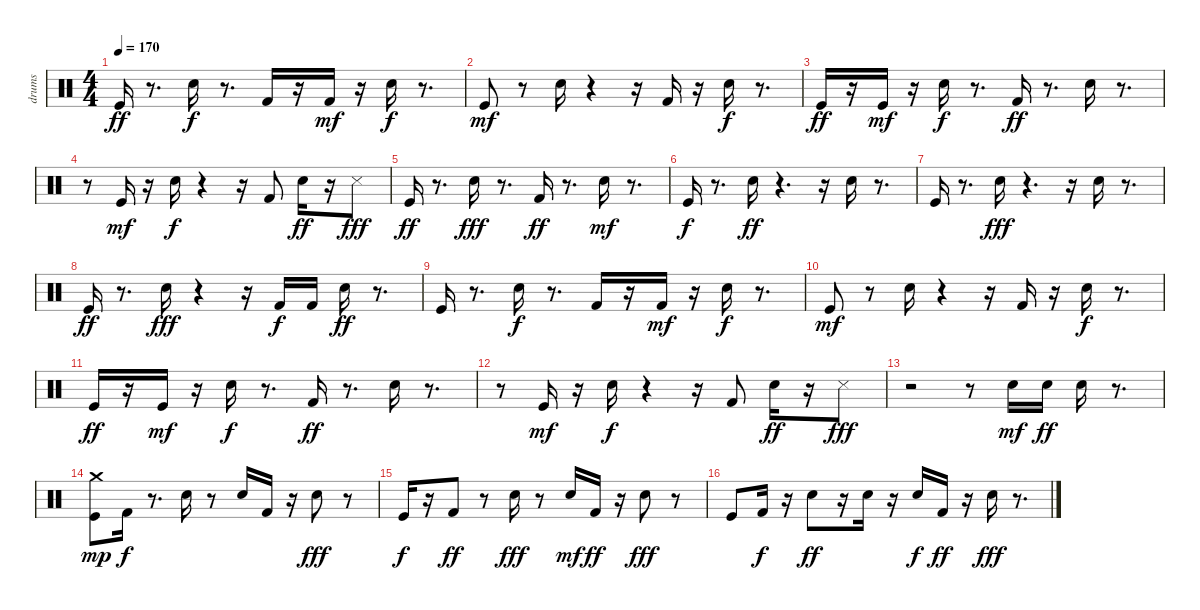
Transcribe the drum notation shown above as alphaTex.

\track ("drums" "drums") {instrument percussion}
\staff {score}
\articulation defaults
\ts (4 4)
\tempo 170
\clef neutral
\ks c "Kick (hit)".16{dy ff}
r.8{d} "Snare (hit) 2".16{dy f} r.8{d} "Kick (hit) 2".16 r.16 "Kick (hit) 2".16{dy mf} r.16 "Snare (hit) 2".16{dy f} r.8{d} |
"Kick (hit)".8{dy mf} r.8 "Snare (hit) 2".16 r.4 r.16 "Kick (hit) 2".16 r.16 "Electric Snare (hit)".16{dy f} r.8{d} |
"Kick (hit)".16{dy ff} r.16 "Kick (hit)".16{dy mf} r.16 "Snare (hit) 2".16{dy f} r.8{d} "Kick (hit) 2".16{dy ff} r.8{d} "Electric Snare (hit)".16 r.8{d} |
r.8 "Kick (hit)".16{dy mf} r.16 "Snare (hit) 2".16{dy f} r.4 r.16 "Kick (hit) 2".8 "Electric Snare (hit)".16{dy ff} r.16 "Snare (side stick) 3".8{dy fff} |
"Kick (hit)".16{dy ff} r.8{d} "Snare (hit) 2".16{dy fff} r.8{d} "Kick (hit) 2".16{dy ff} r.8{d} "Electric Snare (hit)".16{dy mf} r.8{d} |
"Kick (hit)".16{dy f} r.8{d} "Snare (hit) 2".16{dy ff} r.4{d} r.16 "Electric Snare (hit)".16 r.8{d} |
"Kick (hit)".16 r.8{d} "Snare (hit) 2".16{dy fff} r.4{d} r.16 "Electric Snare (hit)".16 r.8{d} |
"Kick (hit)".16{dy ff} r.8{d} "Snare (hit) 2".16{dy fff} r.4 r.16 "Kick (hit) 2".16{dy f} "Kick (hit) 2".16 "Electric Snare (hit)".16{dy ff} r.8{d} |
"Kick (hit)".16 r.8{d} "Snare (hit) 2".16{dy f} r.8{d} "Kick (hit) 2".16 r.16 "Kick (hit) 2".16{dy mf} r.16 "Snare (hit) 2".16{dy f} r.8{d} |
"Kick (hit)".8{dy mf} r.8 "Snare (hit) 2".16 r.4 r.16 "Kick (hit) 2".16 r.16 "Electric Snare (hit)".16{dy f} r.8{d} |
"Kick (hit)".16{dy ff} r.16 "Kick (hit)".16{dy mf} r.16 "Snare (hit) 2".16{dy f} r.8{d} "Kick (hit) 2".16{dy ff} r.8{d} "Electric Snare (hit)".16 r.8{d} |
r.8 "Kick (hit)".16{dy mf} r.16 "Snare (hit) 2".16{dy f} r.4 r.16 "Kick (hit) 2".8 "Electric Snare (hit)".16{dy ff} r.16 "Snare (side stick) 3".8{dy fff} |
r.2 r.8 "Electric Snare (hit)".16{dy mf} "Electric Snare (hit)".16{dy ff} "Electric Snare (hit)".16 r.8{d} |
("Kick (hit)" "Crash medium (hit)").8{dy mp} "Kick (hit) 2".16{dy f} r.8{d} "Electric Snare (hit)".16 r.8 "Electric Snare (hit)".16 "Kick (hit) 2".16 r.16 "Electric Snare (hit)".8{dy fff} r.8 |
"Kick (hit)".16{dy f} r.16 "Kick (hit) 2".8{dy ff} r.8 "Hand Clap (hit)".16{dy fff} r.8 "Hand Clap (hit)".16{dy mf} "Kick (hit) 2".16{dy ff} r.16 "Hand Clap (hit)".8{dy fff} r.8 |
"Kick (hit)".8 "Kick (hit) 2".16{dy f} r.16 "Snare (hit) 2".8{dy ff} r.16 "Snare (hit) 2".16 r.16 "Snare (hit) 2".16{dy f} "Kick (hit) 2".16{dy ff} r.16 "Snare (hit) 2".16{dy fff} r.8{d}
